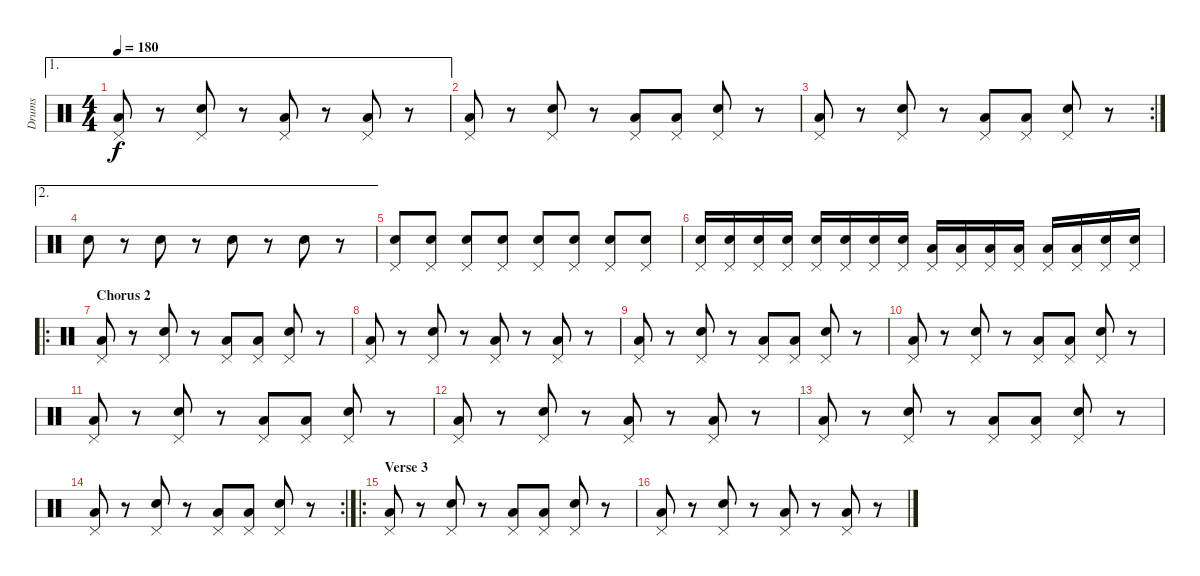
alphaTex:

\track ("Drums" "Drums") {instrument percussion}
\staff {score}
\articulation defaults
\ae 1
\ts (4 4)
\tempo 180
\clef neutral
\ks c
("Low Tom (hit)" "Pedal Hi-Hat (hit)").8{dy f} r.8 ("Electric Snare (hit)" "Pedal Hi-Hat (hit)").8 r.8 ("Low Tom (hit)" "Pedal Hi-Hat (hit)").8 r.8 ("Low Tom (hit)" "Pedal Hi-Hat (hit)").8 r.8 |
("Low Tom (hit)" "Pedal Hi-Hat (hit)").8 r.8 ("Electric Snare (hit)" "Pedal Hi-Hat (hit)").8 r.8 ("Low Tom (hit)" "Pedal Hi-Hat (hit)").8 ("Low Tom (hit)" "Pedal Hi-Hat (hit)").8 ("Electric Snare (hit)" "Pedal Hi-Hat (hit)").8 r.8 |
\rc 2
("Low Tom (hit)" "Pedal Hi-Hat (hit)").8 r.8 ("Electric Snare (hit)" "Pedal Hi-Hat (hit)").8 r.8 ("Low Tom (hit)" "Pedal Hi-Hat (hit)").8 ("Low Tom (hit)" "Pedal Hi-Hat (hit)").8 ("Electric Snare (hit)" "Pedal Hi-Hat (hit)").8 r.8 |
\ae 2 "Electric Snare (hit)".8
r.8 "Electric Snare (hit)".8 r.8 "Electric Snare (hit)".8 r.8 "Electric Snare (hit)".8 r.8 |
("Electric Snare (hit)" "Pedal Hi-Hat (hit)").8 ("Electric Snare (hit)" "Pedal Hi-Hat (hit)").8 ("Electric Snare (hit)" "Pedal Hi-Hat (hit)").8 ("Electric Snare (hit)" "Pedal Hi-Hat (hit)").8 ("Electric Snare (hit)" "Pedal Hi-Hat (hit)").8 ("Electric Snare (hit)" "Pedal Hi-Hat (hit)").8 ("Electric Snare (hit)" "Pedal Hi-Hat (hit)").8 ("Electric Snare (hit)" "Pedal Hi-Hat (hit)").8 |
("Electric Snare (hit)" "Pedal Hi-Hat (hit)").16 ("Electric Snare (hit)" "Pedal Hi-Hat (hit)").16 ("Electric Snare (hit)" "Pedal Hi-Hat (hit)").16 ("Electric Snare (hit)" "Pedal Hi-Hat (hit)").16 ("Electric Snare (hit)" "Pedal Hi-Hat (hit)").16 ("Electric Snare (hit)" "Pedal Hi-Hat (hit)").16 ("Electric Snare (hit)" "Pedal Hi-Hat (hit)").16 ("Electric Snare (hit)" "Pedal Hi-Hat (hit)").16 ("Low Tom (hit)" "Pedal Hi-Hat (hit)").16 ("Low Tom (hit)" "Pedal Hi-Hat (hit)").16 ("Low Tom (hit)" "Pedal Hi-Hat (hit)").16 ("Low Tom (hit)" "Pedal Hi-Hat (hit)").16 ("Low Tom (hit)" "Pedal Hi-Hat (hit)").16 ("Low Tom (hit)" "Pedal Hi-Hat (hit)").16 ("Electric Snare (hit)" "Pedal Hi-Hat (hit)").16 ("Electric Snare (hit)" "Pedal Hi-Hat (hit)").16 |
\ro
\section ("" "Chorus 2")
("Low Tom (hit)" "Pedal Hi-Hat (hit)").8 r.8 ("Electric Snare (hit)" "Pedal Hi-Hat (hit)").8 r.8 ("Low Tom (hit)" "Pedal Hi-Hat (hit)").8 ("Low Tom (hit)" "Pedal Hi-Hat (hit)").8 ("Electric Snare (hit)" "Pedal Hi-Hat (hit)").8 r.8 |
("Low Tom (hit)" "Pedal Hi-Hat (hit)").8 r.8 ("Electric Snare (hit)" "Pedal Hi-Hat (hit)").8 r.8 ("Low Tom (hit)" "Pedal Hi-Hat (hit)").8 r.8 ("Low Tom (hit)" "Pedal Hi-Hat (hit)").8 r.8 |
("Low Tom (hit)" "Pedal Hi-Hat (hit)").8 r.8 ("Electric Snare (hit)" "Pedal Hi-Hat (hit)").8 r.8 ("Low Tom (hit)" "Pedal Hi-Hat (hit)").8 ("Low Tom (hit)" "Pedal Hi-Hat (hit)").8 ("Electric Snare (hit)" "Pedal Hi-Hat (hit)").8 r.8 |
("Low Tom (hit)" "Pedal Hi-Hat (hit)").8 r.8 ("Electric Snare (hit)" "Pedal Hi-Hat (hit)").8 r.8 ("Low Tom (hit)" "Pedal Hi-Hat (hit)").8 ("Low Tom (hit)" "Pedal Hi-Hat (hit)").8 ("Electric Snare (hit)" "Pedal Hi-Hat (hit)").8 r.8 |
("Low Tom (hit)" "Pedal Hi-Hat (hit)").8 r.8 ("Electric Snare (hit)" "Pedal Hi-Hat (hit)").8 r.8 ("Low Tom (hit)" "Pedal Hi-Hat (hit)").8 ("Low Tom (hit)" "Pedal Hi-Hat (hit)").8 ("Electric Snare (hit)" "Pedal Hi-Hat (hit)").8 r.8 |
("Low Tom (hit)" "Pedal Hi-Hat (hit)").8 r.8 ("Electric Snare (hit)" "Pedal Hi-Hat (hit)").8 r.8 ("Low Tom (hit)" "Pedal Hi-Hat (hit)").8 r.8 ("Low Tom (hit)" "Pedal Hi-Hat (hit)").8 r.8 |
("Low Tom (hit)" "Pedal Hi-Hat (hit)").8 r.8 ("Electric Snare (hit)" "Pedal Hi-Hat (hit)").8 r.8 ("Low Tom (hit)" "Pedal Hi-Hat (hit)").8 ("Low Tom (hit)" "Pedal Hi-Hat (hit)").8 ("Electric Snare (hit)" "Pedal Hi-Hat (hit)").8 r.8 |
\rc 2
("Low Tom (hit)" "Pedal Hi-Hat (hit)").8 r.8 ("Electric Snare (hit)" "Pedal Hi-Hat (hit)").8 r.8 ("Low Tom (hit)" "Pedal Hi-Hat (hit)").8 ("Low Tom (hit)" "Pedal Hi-Hat (hit)").8 ("Electric Snare (hit)" "Pedal Hi-Hat (hit)").8 r.8 |
\ro
\section ("" "Verse 3")
("Low Tom (hit)" "Pedal Hi-Hat (hit)").8 r.8 ("Electric Snare (hit)" "Pedal Hi-Hat (hit)").8 r.8 ("Low Tom (hit)" "Pedal Hi-Hat (hit)").8 ("Low Tom (hit)" "Pedal Hi-Hat (hit)").8 ("Electric Snare (hit)" "Pedal Hi-Hat (hit)").8 r.8 |
("Low Tom (hit)" "Pedal Hi-Hat (hit)").8 r.8 ("Electric Snare (hit)" "Pedal Hi-Hat (hit)").8 r.8 ("Low Tom (hit)" "Pedal Hi-Hat (hit)").8 r.8 ("Low Tom (hit)" "Pedal Hi-Hat (hit)").8 r.8
